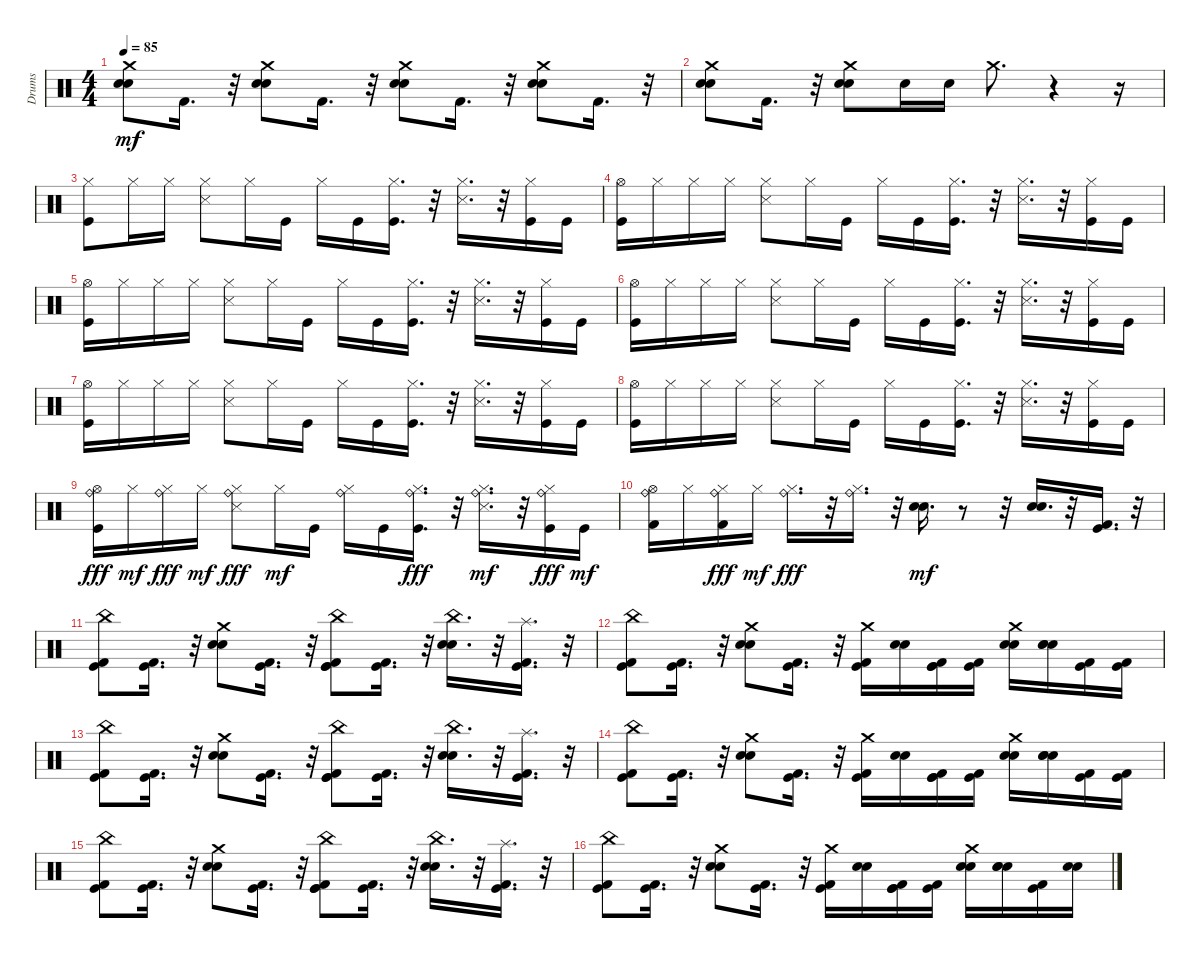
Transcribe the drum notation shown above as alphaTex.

\track ("Drums" "Drums") {instrument percussion}
\staff {score}
\articulation defaults
\ts (4 4)
\tempo 85
\clef neutral
\ks c
("Snare (hit) 2" "Electric Snare (hit)" "Crash medium (hit)").8{dy mf} "Kick (hit) 2".16{d} r.32 ("Electric Snare (hit)" "Snare (hit) 2" "Crash medium (hit)").8 "Kick (hit) 2".16{d} r.32 ("Electric Snare (hit)" "Snare (hit) 2" "Crash medium (hit)").8 "Kick (hit) 2".16{d} r.32 ("Electric Snare (hit)" "Snare (hit) 2" "Crash medium (hit)").8 "Kick (hit) 2".16{d} r.32 |
("Snare (hit) 2" "Electric Snare (hit)" "Crash medium (hit)").8 "Kick (hit) 2".16{d} r.32 ("Electric Snare (hit)" "Snare (hit) 2" "Crash medium (hit)").8 "Electric Snare (hit)".16 "Snare (hit) 2".16 "Crash medium (hit)".8{d} r.4 r.16 |
("Kick (hit)" "Hi-Hat (closed)").8 "Hi-Hat (closed)".16 "Hi-Hat (closed)".16 ("Snare (side stick) 3" "Hi-Hat (closed)").8 "Hi-Hat (closed)".16 "Kick (hit)".16 "Hi-Hat (closed)".16 "Kick (hit)".16 ("Kick (hit)" "Hi-Hat (closed)").16{d} r.32 ("Snare (side stick) 3" "Hi-Hat (closed)").16{d} r.32 ("Kick (hit)" "Hi-Hat (closed)").16 "Kick (hit)".16 |
("Kick (hit)" "Hi-Hat (open)").16 "Hi-Hat (closed)".16 "Hi-Hat (closed)".16 "Hi-Hat (closed)".16 ("Snare (side stick) 3" "Hi-Hat (closed)").8 "Hi-Hat (closed)".16 "Kick (hit)".16 "Hi-Hat (closed)".16 "Kick (hit)".16 ("Kick (hit)" "Hi-Hat (closed)").16{d} r.32 ("Snare (side stick) 3" "Hi-Hat (closed)").16{d} r.32 ("Kick (hit)" "Hi-Hat (closed)").16 "Kick (hit)".16 |
("Kick (hit)" "Hi-Hat (open)").16 "Hi-Hat (closed)".16 "Hi-Hat (closed)".16 "Hi-Hat (closed)".16 ("Snare (side stick) 3" "Hi-Hat (closed)").8 "Hi-Hat (closed)".16 "Kick (hit)".16 "Hi-Hat (closed)".16 "Kick (hit)".16 ("Kick (hit)" "Hi-Hat (closed)").16{d} r.32 ("Snare (side stick) 3" "Hi-Hat (closed)").16{d} r.32 ("Kick (hit)" "Hi-Hat (closed)").16 "Kick (hit)".16 |
("Kick (hit)" "Hi-Hat (open)").16 "Hi-Hat (closed)".16 "Hi-Hat (closed)".16 "Hi-Hat (closed)".16 ("Snare (side stick) 3" "Hi-Hat (closed)").8 "Hi-Hat (closed)".16 "Kick (hit)".16 "Hi-Hat (closed)".16 "Kick (hit)".16 ("Kick (hit)" "Hi-Hat (closed)").16{d} r.32 ("Snare (side stick) 3" "Hi-Hat (closed)").16{d} r.32 ("Kick (hit)" "Hi-Hat (closed)").16 "Kick (hit)".16 |
("Kick (hit)" "Hi-Hat (open)").16 "Hi-Hat (closed)".16 "Hi-Hat (closed)".16 "Hi-Hat (closed)".16 ("Snare (side stick) 3" "Hi-Hat (closed)").8 "Hi-Hat (closed)".16 "Kick (hit)".16 "Hi-Hat (closed)".16 "Kick (hit)".16 ("Kick (hit)" "Hi-Hat (closed)").16{d} r.32 ("Snare (side stick) 3" "Hi-Hat (closed)").16{d} r.32 ("Kick (hit)" "Hi-Hat (closed)").16 "Kick (hit)".16 |
("Kick (hit)" "Hi-Hat (open)").16 "Hi-Hat (closed)".16 "Hi-Hat (closed)".16 "Hi-Hat (closed)".16 ("Snare (side stick) 3" "Hi-Hat (closed)").8 "Hi-Hat (closed)".16 "Kick (hit)".16 "Hi-Hat (closed)".16 "Kick (hit)".16 ("Kick (hit)" "Hi-Hat (closed)").16{d} r.32 ("Snare (side stick) 3" "Hi-Hat (closed)").16{d} r.32 ("Kick (hit)" "Hi-Hat (closed)").16 "Kick (hit)".16 |
("Kick (hit)" "Hi-Hat (open)" "Ride (bell)").16{dy fff} "Hi-Hat (closed)".16{dy mf} ("Hi-Hat (closed)" "Ride (bell)").16{dy fff} "Hi-Hat (closed)".16{dy mf} ("Snare (side stick) 3" "Hi-Hat (closed)" "Ride (bell)").8{dy fff} "Hi-Hat (closed)".16{dy mf} "Kick (hit)".16 ("Ride (bell)" "Hi-Hat (closed)").16 "Kick (hit)".16 ("Kick (hit)" "Hi-Hat (closed)" "Ride (bell)").16{d dy fff} r.32 ("Snare (side stick) 3" "Ride (bell)" "Hi-Hat (closed)").16{d dy mf} r.32 ("Kick (hit)" "Hi-Hat (closed)" "Ride (bell)").16{dy fff} "Kick (hit)".16{dy mf} |
("Kick (hit) 2" "Ride (bell)" "Hi-Hat (open)").16 "Hi-Hat (closed)".16 ("Kick (hit) 2" "Hi-Hat (closed)" "Ride (bell)").16{dy fff} "Hi-Hat (closed)".16{dy mf} ("Hi-Hat (closed)" "Ride (bell)").16{d dy fff} r.32 ("Hi-Hat (closed)" "Ride (bell)").16{d} r.32 ("Snare (hit) 2" "Electric Snare (hit)").16{d dy mf} r.8 r.32 ("Electric Snare (hit)" "Snare (hit) 2").16{d} r.32 ("Kick (hit) 2" "Kick (hit)").16{d} r.32 |
("Kick (hit) 2" "Kick (hit)" "China (hit)").8 ("Kick (hit) 2" "Kick (hit)").16{d} r.32 ("Snare (hit) 2" "Electric Snare (hit)" "Crash medium (hit)").8 ("Kick (hit)" "Kick (hit) 2").16{d} r.32 ("Kick (hit) 2" "Kick (hit)" "Kick (hit)" "China (hit)").8 ("Kick (hit) 2" "Kick (hit)").16{d} r.32 ("Snare (hit) 2" "Electric Snare (hit)" "China (hit)").16{d} r.32 ("Kick (hit) 2" "Kick (hit)" "Splash (hit)").16{d} r.32 |
("Kick (hit) 2" "Kick (hit)" "China (hit)").8 ("Kick (hit)" "Kick (hit) 2").16{d} r.32 ("Snare (hit) 2" "Electric Snare (hit)" "Crash medium (hit)").8 ("Kick (hit) 2" "Kick (hit)").16{d} r.32 ("Kick (hit) 2" "Kick (hit)" "Crash medium (hit)").16 ("Electric Snare (hit)" "Snare (hit) 2").16 ("Kick (hit)" "Kick (hit) 2" "Kick (hit)").16 ("Kick (hit) 2" "Kick (hit)").16 ("Electric Snare (hit)" "Snare (hit) 2" "Crash medium (hit)").16 ("Electric Snare (hit)" "Snare (hit) 2" "Electric Snare (hit)").16 ("Kick (hit) 2" "Kick (hit)").16 ("Kick (hit) 2" "Kick (hit)").16 |
("Kick (hit)" "Kick (hit) 2" "China (hit)").8 ("Kick (hit)" "Kick (hit) 2").16{d} r.32 ("Snare (hit) 2" "Electric Snare (hit)" "Crash medium (hit)").8 ("Kick (hit)" "Kick (hit) 2").16{d} r.32 ("Kick (hit)" "Kick (hit)" "Kick (hit) 2" "China (hit)").8 ("Kick (hit) 2" "Kick (hit)").16{d} r.32 ("Electric Snare (hit)" "Snare (hit) 2" "China (hit)").16{d} r.32 ("Kick (hit) 2" "Kick (hit)" "Splash (hit)").16{d} r.32 |
("Kick (hit)" "Kick (hit) 2" "China (hit)").8 ("Kick (hit)" "Kick (hit) 2").16{d} r.32 ("Snare (hit) 2" "Electric Snare (hit)" "Crash medium (hit)").8 ("Kick (hit) 2" "Kick (hit)").16{d} r.32 ("Kick (hit)" "Kick (hit) 2" "Crash medium (hit)").16 ("Electric Snare (hit)" "Snare (hit) 2").16 ("Kick (hit)" "Kick (hit) 2" "Kick (hit)").16 ("Kick (hit) 2" "Kick (hit)").16 ("Snare (hit) 2" "Electric Snare (hit)" "Crash medium (hit)").16 ("Electric Snare (hit)" "Snare (hit) 2" "Electric Snare (hit)").16 ("Kick (hit) 2" "Kick (hit)").16 ("Kick (hit)" "Kick (hit) 2").16 |
("Kick (hit)" "Kick (hit) 2" "China (hit)").8 ("Kick (hit)" "Kick (hit) 2").16{d} r.32 ("Electric Snare (hit)" "Snare (hit) 2" "Crash medium (hit)").8 ("Kick (hit) 2" "Kick (hit)").16{d} r.32 ("Kick (hit) 2" "Kick (hit)" "Kick (hit)" "China (hit)").8 ("Kick (hit)" "Kick (hit) 2").16{d} r.32 ("Electric Snare (hit)" "Snare (hit) 2" "China (hit)").16{d} r.32 ("Kick (hit)" "Kick (hit) 2" "Splash (hit)").16{d} r.32 |
("Kick (hit)" "Kick (hit) 2" "China (hit)").8 ("Kick (hit) 2" "Kick (hit)").16{d} r.32 ("Electric Snare (hit)" "Snare (hit) 2" "Crash medium (hit)").8 ("Kick (hit) 2" "Kick (hit)").16{d} r.32 ("Kick (hit) 2" "Kick (hit)" "Crash medium (hit)").16 ("Snare (hit) 2" "Electric Snare (hit)").16 ("Kick (hit)" "Kick (hit) 2" "Kick (hit)").16 ("Kick (hit) 2" "Kick (hit)").16 ("Snare (hit) 2" "Electric Snare (hit)" "Crash medium (hit)").16 ("Electric Snare (hit)" "Snare (hit) 2" "Electric Snare (hit)").16 ("Kick (hit) 2" "Kick (hit)").16 ("Snare (hit) 2" "Electric Snare (hit)").16
